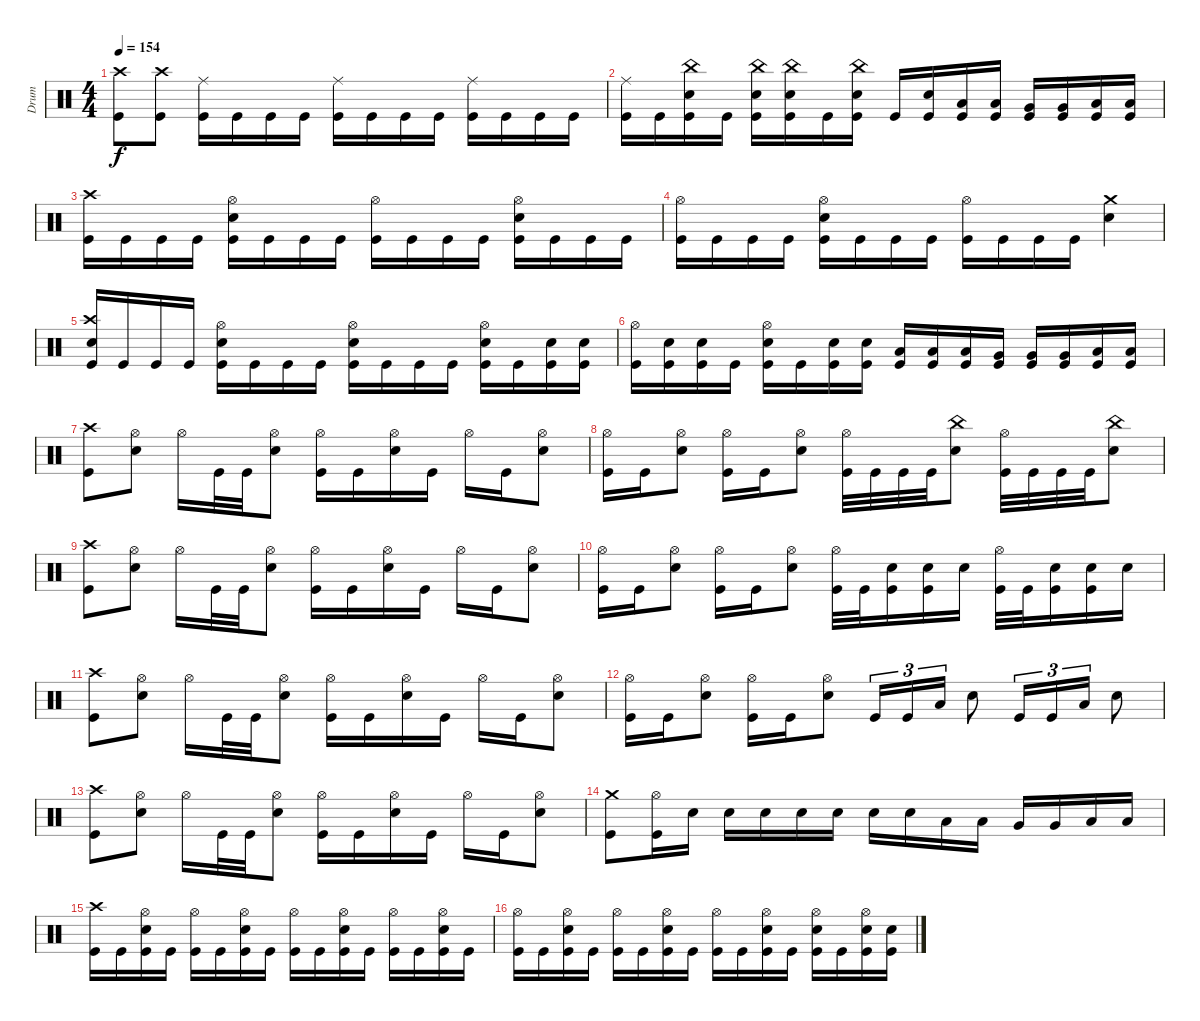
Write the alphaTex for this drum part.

\track ("Drum" "Drum") {instrument percussion}
\staff {score}
\articulation defaults
\ts (4 4)
\tempo 154
\clef neutral
\ks c
("Kick (hit)" "Crash high (hit)").8{dy f} ("Kick (hit)" "Crash high (hit)").8 ("Kick (hit)" "Ride (middle)").16 "Kick (hit)".16 "Kick (hit)".16 "Kick (hit)".16 ("Kick (hit)" "Ride (middle)").16 "Kick (hit)".16 "Kick (hit)".16 "Kick (hit)".16 ("Kick (hit)" "Ride (middle)").16 "Kick (hit)".16 "Kick (hit)".16 "Kick (hit)".16 |
("Kick (hit)" "Ride (middle)").16 "Kick (hit)".16 ("Kick (hit)" "Electric Snare (hit)" "China (hit)").16 "Kick (hit)".16 ("Kick (hit)" "Electric Snare (hit)" "China (hit)").16 ("Kick (hit)" "Electric Snare (hit)" "China (hit)").16 "Kick (hit)".16 ("Kick (hit)" "Electric Snare (hit)" "China (hit)").16 "Kick (hit)".16 ("Kick (hit)" "Electric Snare (hit)").16 ("Kick (hit)" "Low Tom (hit)").16 ("Kick (hit)" "Low Tom (hit)").16 ("Kick (hit)" "Very Low Tom (hit)").16 ("Kick (hit)" "Very Low Tom (hit)").16 ("Kick (hit)" "Low Floor Tom (hit)").16 ("Kick (hit)" "Low Floor Tom (hit)").16 |
("Kick (hit)" "Crash high (hit)").16 "Kick (hit)".16 "Kick (hit)".16 "Kick (hit)".16 ("Kick (hit)" "Electric Snare (hit)" "Hi-Hat (open)").16 "Kick (hit)".16 "Kick (hit)".16 "Kick (hit)".16 ("Kick (hit)" "Hi-Hat (open)").16 "Kick (hit)".16 "Kick (hit)".16 "Kick (hit)".16 ("Kick (hit)" "Electric Snare (hit)" "Hi-Hat (open)").16 "Kick (hit)".16 "Kick (hit)".16 "Kick (hit)".16 |
("Kick (hit)" "Hi-Hat (open)").16 "Kick (hit)".16 "Kick (hit)".16 "Kick (hit)".16 ("Kick (hit)" "Electric Snare (hit)" "Hi-Hat (open)").16 "Kick (hit)".16 "Kick (hit)".16 "Kick (hit)".16 ("Kick (hit)" "Hi-Hat (open)").16 "Kick (hit)".16 "Kick (hit)".16 "Kick (hit)".16 ("Electric Snare (hit)" "Crash medium (hit)").4 |
("Kick (hit)" "Electric Snare (hit)" "Crash high (hit)").16 "Kick (hit)".16 "Kick (hit)".16 "Kick (hit)".16 ("Kick (hit)" "Electric Snare (hit)" "Hi-Hat (open)").16 "Kick (hit)".16 "Kick (hit)".16 "Kick (hit)".16 ("Kick (hit)" "Electric Snare (hit)" "Hi-Hat (open)").16 "Kick (hit)".16 "Kick (hit)".16 "Kick (hit)".16 ("Kick (hit)" "Electric Snare (hit)" "Hi-Hat (open)").16 "Kick (hit)".16 ("Kick (hit)" "Electric Snare (hit)").16 ("Kick (hit)" "Electric Snare (hit)").16 |
("Kick (hit)" "Hi-Hat (open)").16 ("Kick (hit)" "Electric Snare (hit)").16 ("Kick (hit)" "Electric Snare (hit)").16 "Kick (hit)".16 ("Kick (hit)" "Electric Snare (hit)" "Hi-Hat (open)").16 "Kick (hit)".16 ("Kick (hit)" "Electric Snare (hit)").16 ("Kick (hit)" "Electric Snare (hit)").16 ("Kick (hit)" "Low Tom (hit)").16 ("Kick (hit)" "Low Tom (hit)").16 ("Kick (hit)" "Low Tom (hit)").16 ("Kick (hit)" "Very Low Tom (hit)").16 ("Kick (hit)" "Very Low Tom (hit)").16 ("Kick (hit)" "Very Low Tom (hit)").16 ("Kick (hit)" "Low Floor Tom (hit)").16 ("Kick (hit)" "Low Floor Tom (hit)").16 |
("Kick (hit)" "Crash high (hit)").8 ("Electric Snare (hit)" "Hi-Hat (open)").8 "Hi-Hat (open)".16 "Kick (hit)".32 "Kick (hit)".32 ("Electric Snare (hit)" "Hi-Hat (open)").8 ("Kick (hit)" "Hi-Hat (open)").16 "Kick (hit)".16 ("Electric Snare (hit)" "Hi-Hat (open)").16 "Kick (hit)".16 "Hi-Hat (open)".16 "Kick (hit)".16 ("Electric Snare (hit)" "Hi-Hat (open)").8 |
("Kick (hit)" "Hi-Hat (open)").16 "Kick (hit)".16 ("Electric Snare (hit)" "Hi-Hat (open)").8 ("Kick (hit)" "Hi-Hat (open)").16 "Kick (hit)".16 ("Electric Snare (hit)" "Hi-Hat (open)").8 ("Kick (hit)" "Hi-Hat (open)").32 "Kick (hit)".32 "Kick (hit)".32 "Kick (hit)".32 ("Electric Snare (hit)" "China (hit)").8 ("Kick (hit)" "Hi-Hat (open)").32 "Kick (hit)".32 "Kick (hit)".32 "Kick (hit)".32 ("Electric Snare (hit)" "China (hit)").8 |
("Kick (hit)" "Crash high (hit)").8 ("Electric Snare (hit)" "Hi-Hat (open)").8 "Hi-Hat (open)".16 "Kick (hit)".32 "Kick (hit)".32 ("Electric Snare (hit)" "Hi-Hat (open)").8 ("Kick (hit)" "Hi-Hat (open)").16 "Kick (hit)".16 ("Electric Snare (hit)" "Hi-Hat (open)").16 "Kick (hit)".16 "Hi-Hat (open)".16 "Kick (hit)".16 ("Electric Snare (hit)" "Hi-Hat (open)").8 |
("Kick (hit)" "Hi-Hat (open)").16 "Kick (hit)".16 ("Electric Snare (hit)" "Hi-Hat (open)").8 ("Kick (hit)" "Hi-Hat (open)").16 "Kick (hit)".16 ("Electric Snare (hit)" "Hi-Hat (open)").8 ("Kick (hit)" "Hi-Hat (open)").32 "Kick (hit)".32 ("Kick (hit)" "Electric Snare (hit)").16 ("Kick (hit)" "Electric Snare (hit)").16 "Electric Snare (hit)".16 ("Kick (hit)" "Hi-Hat (open)").32 "Kick (hit)".32 ("Kick (hit)" "Electric Snare (hit)").16 ("Kick (hit)" "Electric Snare (hit)").16 "Electric Snare (hit)".16 |
("Kick (hit)" "Crash high (hit)").8 ("Electric Snare (hit)" "Hi-Hat (open)").8 "Hi-Hat (open)".16 "Kick (hit)".32 "Kick (hit)".32 ("Electric Snare (hit)" "Hi-Hat (open)").8 ("Kick (hit)" "Hi-Hat (open)").16 "Kick (hit)".16 ("Electric Snare (hit)" "Hi-Hat (open)").16 "Kick (hit)".16 "Hi-Hat (open)".16 "Kick (hit)".16 ("Electric Snare (hit)" "Hi-Hat (open)").8 |
("Kick (hit)" "Hi-Hat (open)").16 "Kick (hit)".16 ("Electric Snare (hit)" "Hi-Hat (open)").8 ("Kick (hit)" "Hi-Hat (open)").16 "Kick (hit)".16 ("Electric Snare (hit)" "Hi-Hat (open)").8 "Kick (hit)".16{tu (3 2)} "Kick (hit)".16{tu (3 2)} "Low Tom (hit)".16{tu (3 2)} "Electric Snare (hit)".8 "Kick (hit)".16{tu (3 2)} "Kick (hit)".16{tu (3 2)} "Low Tom (hit)".16{tu (3 2)} "Electric Snare (hit)".8 |
("Kick (hit)" "Crash high (hit)").8 ("Electric Snare (hit)" "Hi-Hat (open)").8 "Hi-Hat (open)".16 "Kick (hit)".32 "Kick (hit)".32 ("Electric Snare (hit)" "Hi-Hat (open)").8 ("Kick (hit)" "Hi-Hat (open)").16 "Kick (hit)".16 ("Electric Snare (hit)" "Hi-Hat (open)").16 "Kick (hit)".16 "Hi-Hat (open)".16 "Kick (hit)".16 ("Electric Snare (hit)" "Hi-Hat (open)").8 |
("Kick (hit)" "Crash medium (hit)").8 ("Kick (hit)" "Hi-Hat (open)").16 "Electric Snare (hit)".16 "Electric Snare (hit)".16 "Electric Snare (hit)".16 "Electric Snare (hit)".16 "Electric Snare (hit)".16 "Electric Snare (hit)".16 "Electric Snare (hit)".16 "Low Tom (hit)".16 "Low Tom (hit)".16 "Very Low Tom (hit)".16 "Very Low Tom (hit)".16 "Low Floor Tom (hit)".16 "Low Floor Tom (hit)".16 |
("Kick (hit)" "Crash high (hit)").16 "Kick (hit)".16 ("Kick (hit)" "Electric Snare (hit)" "Hi-Hat (open)").16 "Kick (hit)".16 ("Kick (hit)" "Hi-Hat (open)").16 "Kick (hit)".16 ("Kick (hit)" "Electric Snare (hit)" "Hi-Hat (open)").16 "Kick (hit)".16 ("Kick (hit)" "Hi-Hat (open)").16 "Kick (hit)".16 ("Kick (hit)" "Electric Snare (hit)" "Hi-Hat (open)").16 "Kick (hit)".16 ("Kick (hit)" "Hi-Hat (open)").16 "Kick (hit)".16 ("Kick (hit)" "Electric Snare (hit)" "Hi-Hat (open)").16 "Kick (hit)".16 |
("Kick (hit)" "Hi-Hat (open)").16 "Kick (hit)".16 ("Kick (hit)" "Electric Snare (hit)" "Hi-Hat (open)").16 "Kick (hit)".16 ("Kick (hit)" "Hi-Hat (open)").16 "Kick (hit)".16 ("Kick (hit)" "Electric Snare (hit)" "Hi-Hat (open)").16 "Kick (hit)".16 ("Kick (hit)" "Hi-Hat (open)").16 "Kick (hit)".16 ("Kick (hit)" "Electric Snare (hit)" "Hi-Hat (open)").16 "Kick (hit)".16 ("Kick (hit)" "Electric Snare (hit)" "Hi-Hat (open)").16 "Kick (hit)".16 ("Kick (hit)" "Electric Snare (hit)" "Hi-Hat (open)").16 ("Kick (hit)" "Electric Snare (hit)").16
